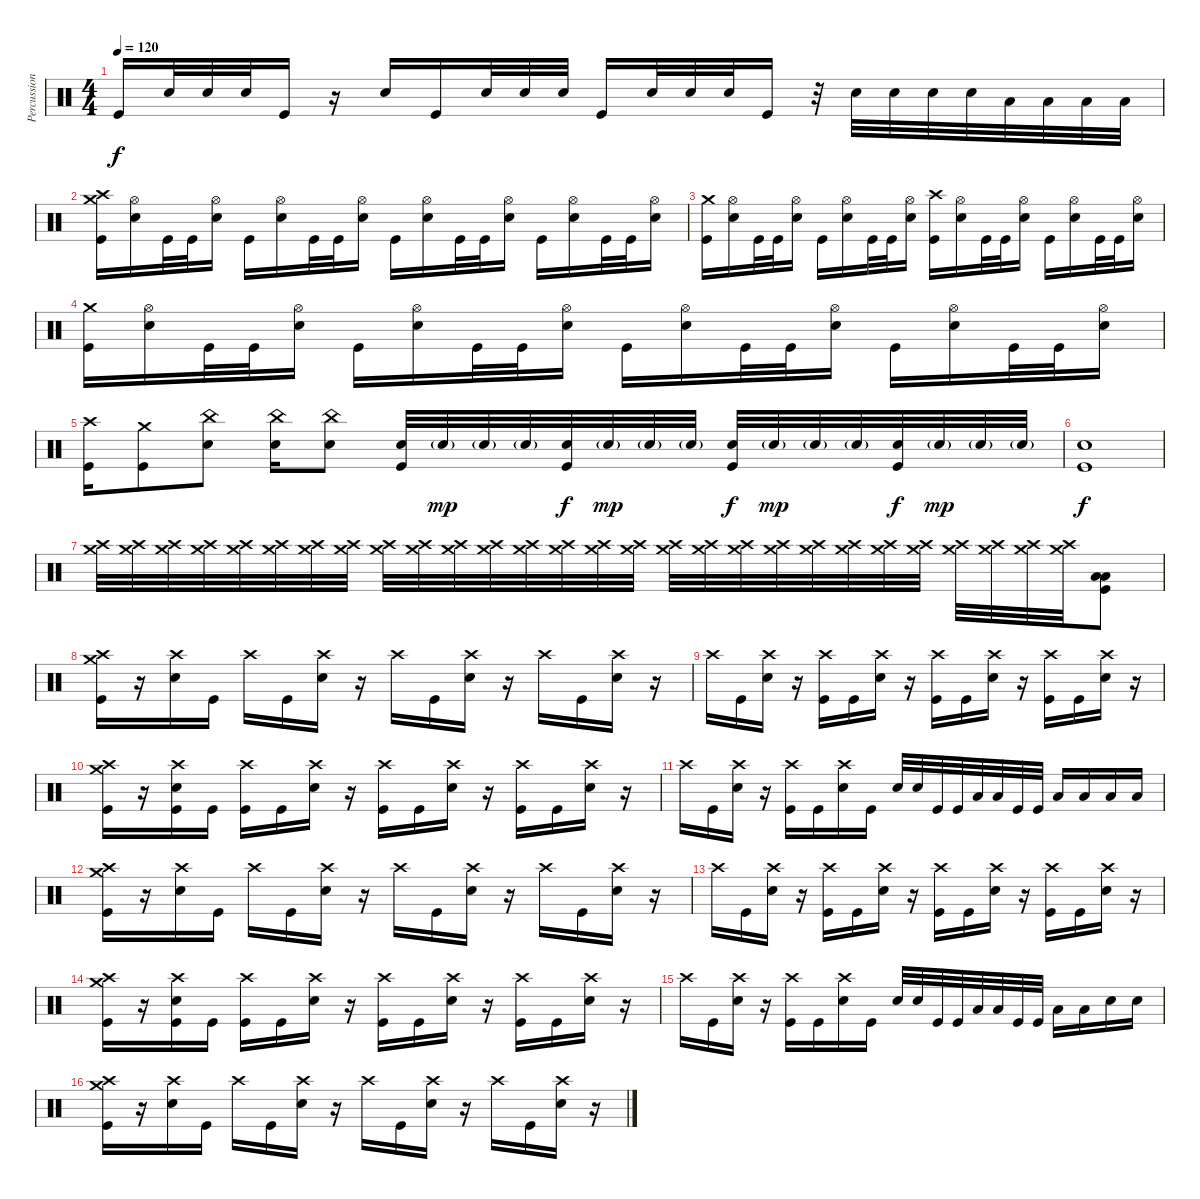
\track ("Percussion" "Percussion") {instrument percussion}
\staff {score}
\articulation defaults
\ts (4 4)
\tempo 120
\clef neutral
\ks c "Kick (hit)".16{dy f} "Snare (hit) 2".32 "Snare (hit) 2".32 "Snare (hit) 2".32 "Kick (hit)".16
r.16 "Snare (hit) 2".16 "Kick (hit)".16 "Snare (hit) 2".32 "Snare (hit) 2".32 "Snare (hit) 2".32 "Kick (hit)".16 "Snare (hit) 2".32 "Snare (hit) 2".32 "Snare (hit) 2".32 "Kick (hit)".16 r.32 "Snare (hit) 2".32 "Snare (hit) 2".32 "Snare (hit) 2".32 "Snare (hit) 2".32 "Low Tom (hit)".32 "Low Tom (hit)".32 "Low Tom (hit)".32 "Low Tom (hit)".32 |
("Crash medium (hit)" "Crash high (hit)" "Kick (hit)").16 ("Hi-Hat (open)" "Snare (hit) 2").16 "Kick (hit)".32 "Kick (hit)".32 ("Hi-Hat (open)" "Snare (hit) 2").16 "Kick (hit)".16 ("Hi-Hat (open)" "Snare (hit) 2").16 "Kick (hit)".32 "Kick (hit)".32 ("Hi-Hat (open)" "Snare (hit) 2").16 "Kick (hit)".16 ("Hi-Hat (open)" "Snare (hit) 2").16 "Kick (hit)".32 "Kick (hit)".32 ("Hi-Hat (open)" "Snare (hit) 2").16 "Kick (hit)".16 ("Hi-Hat (open)" "Snare (hit) 2").16 "Kick (hit)".32 "Kick (hit)".32 ("Hi-Hat (open)" "Snare (hit) 2").16 |
("Crash medium (hit)" "Kick (hit)").16 ("Hi-Hat (open)" "Snare (hit) 2").16 "Kick (hit)".32 "Kick (hit)".32 ("Hi-Hat (open)" "Snare (hit) 2").16 "Kick (hit)".16 ("Hi-Hat (open)" "Snare (hit) 2").16 "Kick (hit)".32 "Kick (hit)".32 ("Hi-Hat (open)" "Snare (hit) 2").16 ("Crash high (hit)" "Kick (hit)").16 ("Hi-Hat (open)" "Snare (hit) 2").16 "Kick (hit)".32 "Kick (hit)".32 ("Hi-Hat (open)" "Snare (hit) 2").16 "Kick (hit)".16 ("Hi-Hat (open)" "Snare (hit) 2").16 "Kick (hit)".32 "Kick (hit)".32 ("Hi-Hat (open)" "Snare (hit) 2").16 |
("Crash medium (hit)" "Kick (hit)").16 ("Hi-Hat (open)" "Snare (hit) 2").16 "Kick (hit)".32 "Kick (hit)".32 ("Hi-Hat (open)" "Snare (hit) 2").16 "Kick (hit)".16 ("Hi-Hat (open)" "Snare (hit) 2").16 "Kick (hit)".32 "Kick (hit)".32 ("Hi-Hat (open)" "Snare (hit) 2").16 "Kick (hit)".16 ("Hi-Hat (open)" "Snare (hit) 2").16 "Kick (hit)".32 "Kick (hit)".32 ("Hi-Hat (open)" "Snare (hit) 2").16 "Kick (hit)".16 ("Hi-Hat (open)" "Snare (hit) 2").16 "Kick (hit)".32 "Kick (hit)".32 ("Hi-Hat (open)" "Snare (hit) 2").16 |
("Crash high (hit)" "Kick (hit)").16 ("Crash medium (hit)" "Kick (hit)").8 ("China (hit)" "Snare (hit) 2").8 ("China (hit)" "Snare (hit) 2").16 ("China (hit)" "Snare (hit) 2").8 ("Snare (hit) 2" "Kick (hit)").32 "Snare (hit) 2"{g}.32{dy mp} "Snare (hit) 2"{g}.32 "Snare (hit) 2"{g}.32 ("Snare (hit) 2" "Kick (hit)").32{dy f} "Snare (hit) 2"{g}.32{dy mp} "Snare (hit) 2"{g}.32 "Snare (hit) 2"{g}.32 ("Snare (hit) 2" "Kick (hit)").32{dy f} "Snare (hit) 2"{g}.32{dy mp} "Snare (hit) 2"{g}.32 "Snare (hit) 2"{g}.32 ("Snare (hit) 2" "Kick (hit)").32{dy f} "Snare (hit) 2"{g}.32{dy mp} "Snare (hit) 2"{g}.32 "Snare (hit) 2"{g}.32 |
("Snare (hit) 2" "Kick (hit)").1{dy f} |
("Crash medium (hit)" "Crash high (hit)").32{volume 4} ("Crash medium (hit)" "Crash high (hit)").32 ("Crash medium (hit)" "Crash high (hit)").32 ("Crash medium (hit)" "Crash high (hit)").32 ("Crash medium (hit)" "Crash high (hit)").32 ("Crash medium (hit)" "Crash high (hit)").32 ("Crash medium (hit)" "Crash high (hit)").32 ("Crash medium (hit)" "Crash high (hit)").32 ("Crash medium (hit)" "Crash high (hit)").32{volume 6} ("Crash medium (hit)" "Crash high (hit)").32 ("Crash medium (hit)" "Crash high (hit)").32 ("Crash medium (hit)" "Crash high (hit)").32 ("Crash medium (hit)" "Crash high (hit)").32 ("Crash medium (hit)" "Crash high (hit)").32 ("Crash medium (hit)" "Crash high (hit)").32 ("Crash medium (hit)" "Crash high (hit)").32 ("Crash medium (hit)" "Crash high (hit)").32{volume 9} ("Crash medium (hit)" "Crash high (hit)").32 ("Crash medium (hit)" "Crash high (hit)").32 ("Crash medium (hit)" "Crash high (hit)").32 ("Crash medium (hit)" "Crash high (hit)").32 ("Crash medium (hit)" "Crash high (hit)").32 ("Crash medium (hit)" "Crash high (hit)").32 ("Crash medium (hit)" "Crash high (hit)").32 ("Crash medium (hit)" "Crash high (hit)").32{volume 11} ("Crash medium (hit)" "Crash high (hit)").32 ("Crash medium (hit)" "Crash high (hit)").32 ("Crash medium (hit)" "Crash high (hit)").32 ("Low Tom (hit)" "Low Floor Tom (hit)" "Kick (hit)").8{volume 13} |
("Crash medium (hit)" "Crash high (hit)" "Kick (hit)").16 r.16 ("Crash high (hit)" "Snare (hit) 2").16 "Kick (hit)".16 "Crash high (hit)".16 "Kick (hit)".16 ("Crash high (hit)" "Snare (hit) 2").16 r.16 "Crash high (hit)".16 "Kick (hit)".16 ("Crash high (hit)" "Snare (hit) 2").16 r.16 "Crash high (hit)".16 "Kick (hit)".16 ("Crash high (hit)" "Snare (hit) 2").16 r.16 |
"Crash high (hit)".16 "Kick (hit)".16 ("Crash high (hit)" "Snare (hit) 2").16 r.16 ("Crash high (hit)" "Kick (hit)").16 "Kick (hit)".16 ("Crash high (hit)" "Snare (hit) 2").16 r.16 ("Crash high (hit)" "Kick (hit)").16 "Kick (hit)".16 ("Crash high (hit)" "Snare (hit) 2").16 r.16 ("Crash high (hit)" "Kick (hit)").16 "Kick (hit)".16 ("Crash high (hit)" "Snare (hit) 2").16 r.16 |
("Crash medium (hit)" "Crash high (hit)" "Kick (hit)").16 r.16 ("Crash high (hit)" "Snare (hit) 2" "Kick (hit)").16 "Kick (hit)".16 ("Crash high (hit)" "Kick (hit)").16 "Kick (hit)".16 ("Crash high (hit)" "Snare (hit) 2").16 r.16 ("Crash high (hit)" "Kick (hit)").16 "Kick (hit)".16 ("Crash high (hit)" "Snare (hit) 2").16 r.16 ("Crash high (hit)" "Kick (hit)").16 "Kick (hit)".16 ("Crash high (hit)" "Snare (hit) 2").16 r.16 |
"Crash high (hit)".16 "Kick (hit)".16 ("Crash high (hit)" "Snare (hit) 2").16 r.16 ("Crash high (hit)" "Kick (hit)").16 "Kick (hit)".16 ("Crash high (hit)" "Snare (hit) 2").16 "Kick (hit)".16 "Snare (hit) 2".32 "Snare (hit) 2".32 "Kick (hit)".32 "Kick (hit)".32 "Low Tom (hit)".32 "Low Tom (hit)".32 "Kick (hit)".32 "Kick (hit)".32 "Low Floor Tom (hit)".16 "Low Floor Tom (hit)".16 "Low Floor Tom (hit)".16 "Low Floor Tom (hit)".16 |
("Crash medium (hit)" "Crash high (hit)" "Kick (hit)").16 r.16 ("Crash high (hit)" "Snare (hit) 2").16 "Kick (hit)".16 "Crash high (hit)".16 "Kick (hit)".16 ("Crash high (hit)" "Snare (hit) 2").16 r.16 "Crash high (hit)".16 "Kick (hit)".16 ("Crash high (hit)" "Snare (hit) 2").16 r.16 "Crash high (hit)".16 "Kick (hit)".16 ("Crash high (hit)" "Snare (hit) 2").16 r.16 |
"Crash high (hit)".16 "Kick (hit)".16 ("Crash high (hit)" "Snare (hit) 2").16 r.16 ("Crash high (hit)" "Kick (hit)").16 "Kick (hit)".16 ("Crash high (hit)" "Snare (hit) 2").16 r.16 ("Crash high (hit)" "Kick (hit)").16 "Kick (hit)".16 ("Crash high (hit)" "Snare (hit) 2").16 r.16 ("Crash high (hit)" "Kick (hit)").16 "Kick (hit)".16 ("Crash high (hit)" "Snare (hit) 2").16 r.16 |
("Crash medium (hit)" "Crash high (hit)" "Kick (hit)").16 r.16 ("Crash high (hit)" "Snare (hit) 2" "Kick (hit)").16 "Kick (hit)".16 ("Crash high (hit)" "Kick (hit)").16 "Kick (hit)".16 ("Crash high (hit)" "Snare (hit) 2").16 r.16 ("Crash high (hit)" "Kick (hit)").16 "Kick (hit)".16 ("Crash high (hit)" "Snare (hit) 2").16 r.16 ("Crash high (hit)" "Kick (hit)").16 "Kick (hit)".16 ("Crash high (hit)" "Snare (hit) 2").16 r.16 |
"Crash high (hit)".16 "Kick (hit)".16 ("Crash high (hit)" "Snare (hit) 2").16 r.16 ("Crash high (hit)" "Kick (hit)").16 "Kick (hit)".16 ("Crash high (hit)" "Snare (hit) 2").16 "Kick (hit)".16 "Snare (hit) 2".32 "Snare (hit) 2".32 "Kick (hit)".32 "Kick (hit)".32 "Low Tom (hit)".32 "Low Tom (hit)".32 "Kick (hit)".32 "Kick (hit)".32 "Low Tom (hit)".16 "Low Tom (hit)".16 "Snare (hit) 2".16 "Snare (hit) 2".16 |
("Crash medium (hit)" "Crash high (hit)" "Kick (hit)").16 r.16 ("Crash high (hit)" "Snare (hit) 2").16 "Kick (hit)".16 "Crash high (hit)".16 "Kick (hit)".16 ("Crash high (hit)" "Snare (hit) 2").16 r.16 "Crash high (hit)".16 "Kick (hit)".16 ("Crash high (hit)" "Snare (hit) 2").16 r.16 "Crash high (hit)".16 "Kick (hit)".16 ("Crash high (hit)" "Snare (hit) 2").16 r.16
